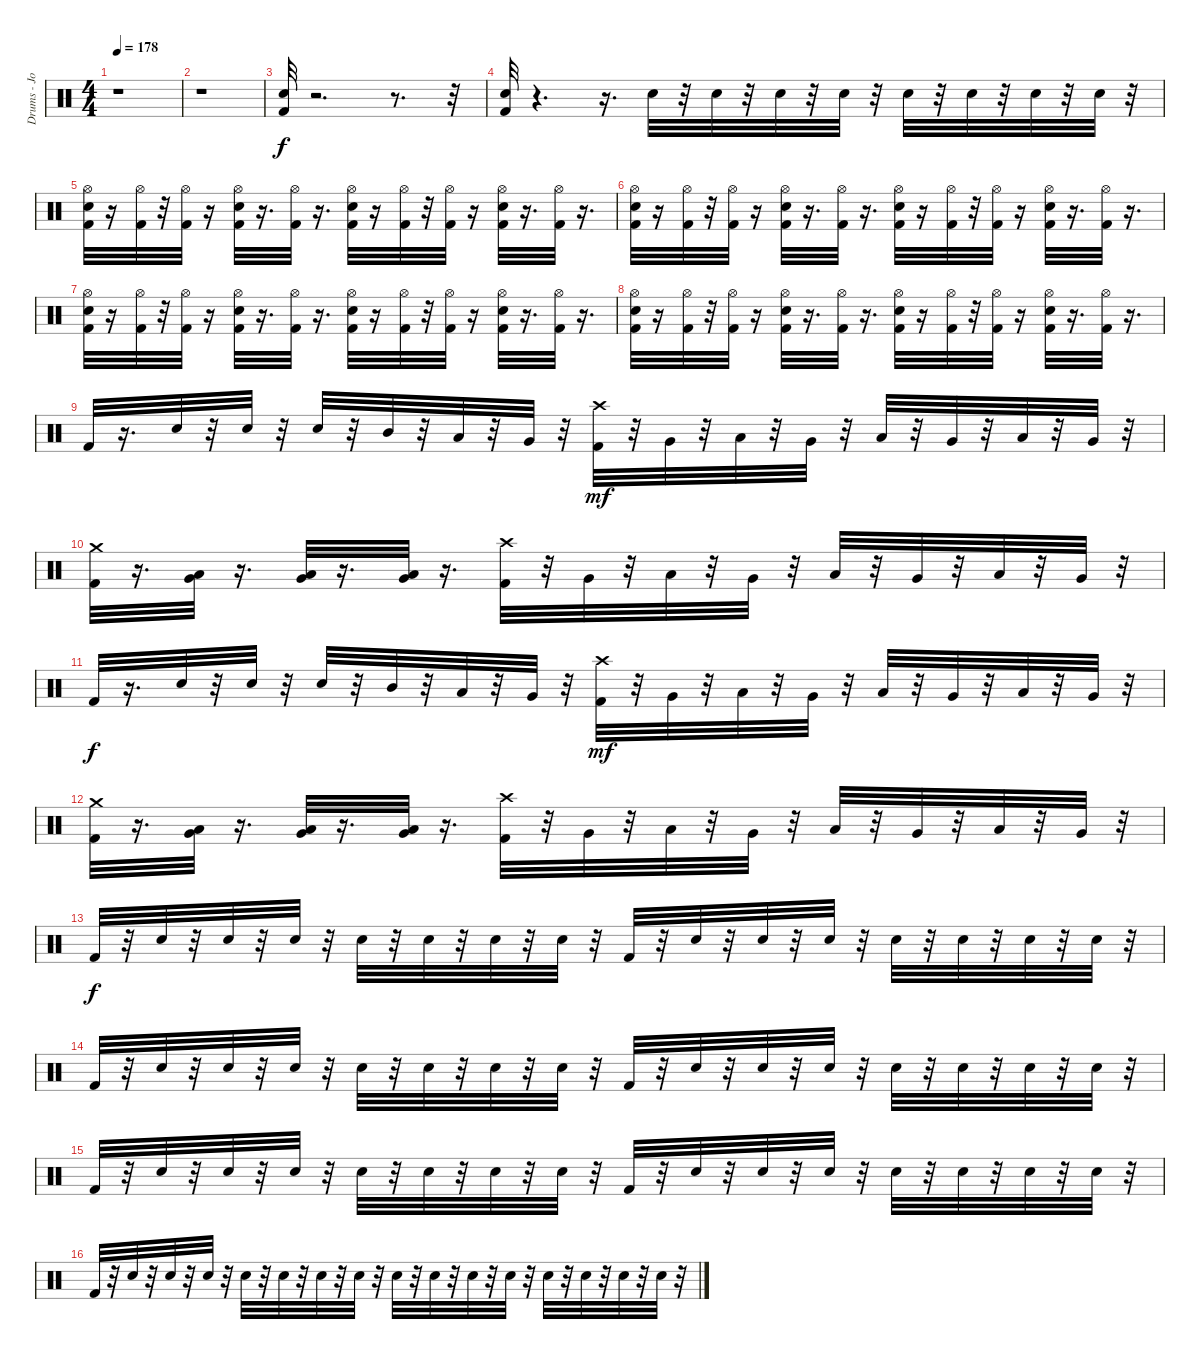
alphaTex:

\track ("Drums - John dette" "Drums - Jo") {instrument percussion}
\staff {score}
\articulation defaults
\ts (4 4)
\tempo 178
\clef neutral
\ks c
r.1{dy f} |
r.1 |
("Kick (hit) 2" "Snare (hit) 2").32 r.2{d} r.8{d} r.32 |
("Kick (hit) 2" "Snare (hit) 2").32 r.4{d} r.16{d} "Electric Snare (hit)".32 r.32 "Electric Snare (hit)".32 r.32 "Electric Snare (hit)".32 r.32 "Electric Snare (hit)".32 r.32 "Electric Snare (hit)".32 r.32 "Electric Snare (hit)".32 r.32 "Electric Snare (hit)".32 r.32 "Electric Snare (hit)".32 r.32 |
("Kick (hit) 2" "Snare (hit) 2" "Hi-Hat (open)").32 r.16 ("Kick (hit) 2" "Hi-Hat (open)").32 r.32 ("Kick (hit) 2" "Hi-Hat (open)").32 r.16 ("Kick (hit) 2" "Snare (hit) 2" "Hi-Hat (open)").32 r.16{d} ("Kick (hit) 2" "Hi-Hat (open)").32 r.16{d} ("Kick (hit) 2" "Snare (hit) 2" "Hi-Hat (open)").32 r.16 ("Kick (hit) 2" "Hi-Hat (open)").32 r.32 ("Kick (hit) 2" "Hi-Hat (open)").32 r.16 ("Kick (hit) 2" "Snare (hit) 2" "Hi-Hat (open)").32 r.16{d} ("Kick (hit) 2" "Hi-Hat (open)").32 r.16{d} |
("Kick (hit) 2" "Snare (hit) 2" "Hi-Hat (open)").32 r.16 ("Kick (hit) 2" "Hi-Hat (open)").32 r.32 ("Kick (hit) 2" "Hi-Hat (open)").32 r.16 ("Kick (hit) 2" "Snare (hit) 2" "Hi-Hat (open)").32 r.16{d} ("Kick (hit) 2" "Hi-Hat (open)").32 r.16{d} ("Kick (hit) 2" "Snare (hit) 2" "Hi-Hat (open)").32 r.16 ("Kick (hit) 2" "Hi-Hat (open)").32 r.32 ("Kick (hit) 2" "Hi-Hat (open)").32 r.16 ("Kick (hit) 2" "Snare (hit) 2" "Hi-Hat (open)").32 r.16{d} ("Kick (hit) 2" "Hi-Hat (open)").32 r.16{d} |
("Kick (hit) 2" "Snare (hit) 2" "Hi-Hat (open)").32 r.16 ("Kick (hit) 2" "Hi-Hat (open)").32 r.32 ("Kick (hit) 2" "Hi-Hat (open)").32 r.16 ("Kick (hit) 2" "Snare (hit) 2" "Hi-Hat (open)").32 r.16{d} ("Kick (hit) 2" "Hi-Hat (open)").32 r.16{d} ("Kick (hit) 2" "Snare (hit) 2" "Hi-Hat (open)").32 r.16 ("Kick (hit) 2" "Hi-Hat (open)").32 r.32 ("Kick (hit) 2" "Hi-Hat (open)").32 r.16 ("Kick (hit) 2" "Snare (hit) 2" "Hi-Hat (open)").32 r.16{d} ("Kick (hit) 2" "Hi-Hat (open)").32 r.16{d} |
("Kick (hit) 2" "Snare (hit) 2" "Hi-Hat (open)").32 r.16 ("Kick (hit) 2" "Hi-Hat (open)").32 r.32 ("Kick (hit) 2" "Hi-Hat (open)").32 r.16 ("Kick (hit) 2" "Snare (hit) 2" "Hi-Hat (open)").32 r.16{d} ("Kick (hit) 2" "Hi-Hat (open)").32 r.16{d} ("Kick (hit) 2" "Snare (hit) 2" "Hi-Hat (open)").32 r.16 ("Kick (hit) 2" "Hi-Hat (open)").32 r.32 ("Kick (hit) 2" "Hi-Hat (open)").32 r.16 ("Kick (hit) 2" "Snare (hit) 2" "Hi-Hat (open)").32 r.16{d} ("Kick (hit) 2" "Hi-Hat (open)").32 r.16{d} |
"Kick (hit) 2".32 r.16{d} "Snare (hit) 2".32 r.32 "Snare (hit) 2".32 r.32 "Snare (hit) 2".32 r.32 "Mid Tom (hit)".32 r.32 "Low Tom (hit)".32 r.32 "Very Low Tom (hit)".32 r.32 ("Kick (hit) 2" "Crash high (hit)").32{dy mf} r.32 "Very Low Tom (hit)".32 r.32 "Low Floor Tom (hit)".32 r.32 "Very Low Tom (hit)".32 r.32 "Low Floor Tom (hit)".32 r.32 "Very Low Tom (hit)".32 r.32 "Low Floor Tom (hit)".32 r.32 "Very Low Tom (hit)".32 r.32 |
("Kick (hit) 2" "Crash medium (hit)").32 r.16{d} ("Low Floor Tom (hit)" "Very Low Tom (hit)").32 r.16{d} ("Low Floor Tom (hit)" "Very Low Tom (hit)").32 r.16{d} ("Low Floor Tom (hit)" "Very Low Tom (hit)").32 r.16{d} ("Kick (hit) 2" "Crash high (hit)").32 r.32 "Very Low Tom (hit)".32 r.32 "Low Floor Tom (hit)".32 r.32 "Very Low Tom (hit)".32 r.32 "Low Floor Tom (hit)".32 r.32 "Very Low Tom (hit)".32 r.32 "Low Floor Tom (hit)".32 r.32 "Very Low Tom (hit)".32 r.32 |
"Kick (hit) 2".32{dy f} r.16{d} "Snare (hit) 2".32 r.32 "Snare (hit) 2".32 r.32 "Snare (hit) 2".32 r.32 "Mid Tom (hit)".32 r.32 "Low Tom (hit)".32 r.32 "Very Low Tom (hit)".32 r.32 ("Kick (hit) 2" "Crash high (hit)").32{dy mf} r.32 "Very Low Tom (hit)".32 r.32 "Low Floor Tom (hit)".32 r.32 "Very Low Tom (hit)".32 r.32 "Low Floor Tom (hit)".32 r.32 "Very Low Tom (hit)".32 r.32 "Low Floor Tom (hit)".32 r.32 "Very Low Tom (hit)".32 r.32 |
("Kick (hit) 2" "Crash medium (hit)").32 r.16{d} ("Low Floor Tom (hit)" "Very Low Tom (hit)").32 r.16{d} ("Low Floor Tom (hit)" "Very Low Tom (hit)").32 r.16{d} ("Low Floor Tom (hit)" "Very Low Tom (hit)").32 r.16{d} ("Kick (hit) 2" "Crash high (hit)").32 r.32 "Very Low Tom (hit)".32 r.32 "Low Floor Tom (hit)".32 r.32 "Very Low Tom (hit)".32 r.32 "Low Floor Tom (hit)".32 r.32 "Very Low Tom (hit)".32 r.32 "Low Floor Tom (hit)".32 r.32 "Very Low Tom (hit)".32 r.32 |
"Kick (hit) 2".32{dy f} r.32 "Snare (hit) 2".32 r.32 "Snare (hit) 2".32 r.32 "Snare (hit) 2".32 r.32 "Snare (hit) 2".32 r.32 "Snare (hit) 2".32 r.32 "Snare (hit) 2".32 r.32 "Snare (hit) 2".32 r.32 "Kick (hit) 2".32 r.32 "Snare (hit) 2".32 r.32 "Snare (hit) 2".32 r.32 "Snare (hit) 2".32 r.32 "Snare (hit) 2".32 r.32 "Snare (hit) 2".32 r.32 "Snare (hit) 2".32 r.32 "Snare (hit) 2".32 r.32 |
"Kick (hit) 2".32 r.32 "Snare (hit) 2".32 r.32 "Snare (hit) 2".32 r.32 "Snare (hit) 2".32 r.32 "Snare (hit) 2".32 r.32 "Snare (hit) 2".32 r.32 "Snare (hit) 2".32 r.32 "Snare (hit) 2".32 r.32 "Kick (hit) 2".32 r.32 "Snare (hit) 2".32 r.32 "Snare (hit) 2".32 r.32 "Snare (hit) 2".32 r.32 "Snare (hit) 2".32 r.32 "Snare (hit) 2".32 r.32 "Snare (hit) 2".32 r.32 "Snare (hit) 2".32 r.32 |
"Kick (hit) 2".32 r.32 "Snare (hit) 2".32 r.32 "Snare (hit) 2".32 r.32 "Snare (hit) 2".32 r.32 "Snare (hit) 2".32 r.32 "Snare (hit) 2".32 r.32 "Snare (hit) 2".32 r.32 "Snare (hit) 2".32 r.32 "Kick (hit) 2".32 r.32 "Snare (hit) 2".32 r.32 "Snare (hit) 2".32 r.32 "Snare (hit) 2".32 r.32 "Snare (hit) 2".32 r.32 "Snare (hit) 2".32 r.32 "Snare (hit) 2".32 r.32 "Snare (hit) 2".32 r.32 |
"Kick (hit) 2".32 r.32 "Snare (hit) 2".32 r.32 "Snare (hit) 2".32 r.32 "Snare (hit) 2".32 r.32 "Snare (hit) 2".32 r.32 "Snare (hit) 2".32 r.32 "Snare (hit) 2".32 r.32 "Snare (hit) 2".32 r.32 "Snare (hit) 2".32 r.32 "Snare (hit) 2".32 r.32 "Snare (hit) 2".32 r.32 "Snare (hit) 2".32 r.32 "Snare (hit) 2".32 r.32 "Snare (hit) 2".32 r.32 "Snare (hit) 2".32 r.32 "Snare (hit) 2".32 r.32
